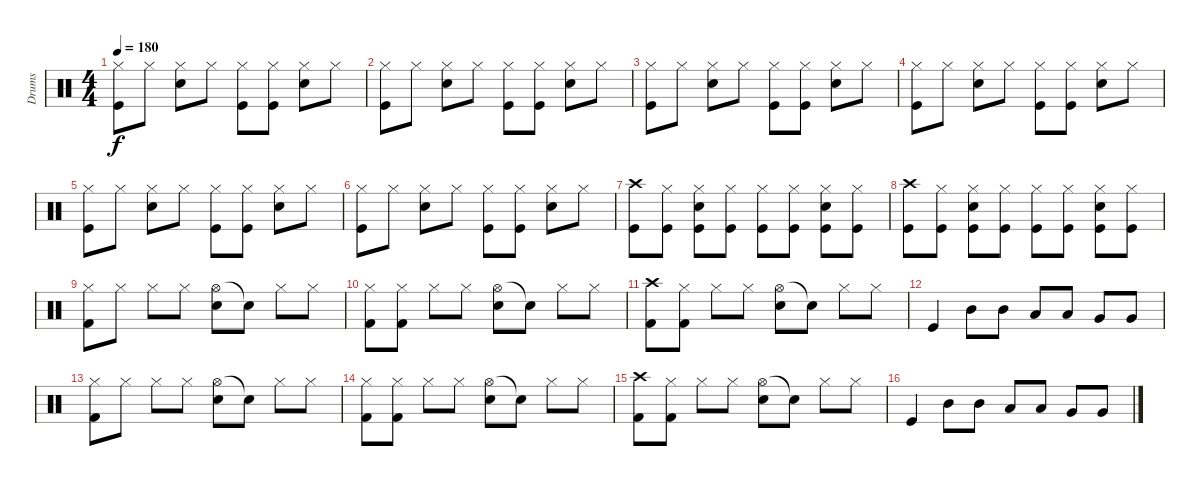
\track ("Drums" "Drums") {instrument percussion}
\staff {score}
\articulation defaults
\ts (4 4)
\tempo 180
\clef neutral
\ks c
("Hi-Hat (closed)" "Kick (hit)").8{dy f} "Hi-Hat (closed)".8 ("Hi-Hat (closed)" "Snare (hit) 2").8 "Hi-Hat (closed)".8 ("Hi-Hat (closed)" "Kick (hit)").8 ("Hi-Hat (closed)" "Kick (hit)").8 ("Hi-Hat (closed)" "Snare (hit) 2").8 "Hi-Hat (closed)".8 |
("Hi-Hat (closed)" "Kick (hit)").8 "Hi-Hat (closed)".8 ("Hi-Hat (closed)" "Snare (hit) 2").8 "Hi-Hat (closed)".8 ("Hi-Hat (closed)" "Kick (hit)").8 ("Hi-Hat (closed)" "Kick (hit)").8 ("Hi-Hat (closed)" "Snare (hit) 2").8 "Hi-Hat (closed)".8 |
("Hi-Hat (closed)" "Kick (hit)").8 "Hi-Hat (closed)".8 ("Hi-Hat (closed)" "Snare (hit) 2").8 "Hi-Hat (closed)".8 ("Hi-Hat (closed)" "Kick (hit)").8 ("Hi-Hat (closed)" "Kick (hit)").8 ("Hi-Hat (closed)" "Snare (hit) 2").8 "Hi-Hat (closed)".8 |
("Hi-Hat (closed)" "Kick (hit)").8 "Hi-Hat (closed)".8 ("Hi-Hat (closed)" "Snare (hit) 2").8 "Hi-Hat (closed)".8 ("Hi-Hat (closed)" "Kick (hit)").8 ("Hi-Hat (closed)" "Kick (hit)").8 ("Hi-Hat (closed)" "Snare (hit) 2").8 "Hi-Hat (closed)".8 |
("Hi-Hat (closed)" "Kick (hit)").8 "Hi-Hat (closed)".8 ("Hi-Hat (closed)" "Snare (hit) 2").8 "Hi-Hat (closed)".8 ("Hi-Hat (closed)" "Kick (hit)").8 ("Hi-Hat (closed)" "Kick (hit)").8 ("Hi-Hat (closed)" "Snare (hit) 2").8 "Hi-Hat (closed)".8 |
("Hi-Hat (closed)" "Kick (hit)").8 "Hi-Hat (closed)".8 ("Hi-Hat (closed)" "Snare (hit) 2").8 "Hi-Hat (closed)".8 ("Hi-Hat (closed)" "Kick (hit)").8 ("Hi-Hat (closed)" "Kick (hit)").8 ("Hi-Hat (closed)" "Snare (hit) 2").8 "Hi-Hat (closed)".8 |
("Crash high (hit)" "Kick (hit)").8 ("Hi-Hat (closed)" "Kick (hit)").8 ("Hi-Hat (closed)" "Snare (hit) 2" "Kick (hit)").8 ("Hi-Hat (closed)" "Kick (hit)").8 ("Hi-Hat (closed)" "Kick (hit)").8 ("Hi-Hat (closed)" "Kick (hit)").8 ("Hi-Hat (closed)" "Snare (hit) 2" "Kick (hit)").8 ("Hi-Hat (closed)" "Kick (hit)").8 |
("Crash high (hit)" "Kick (hit)").8 ("Hi-Hat (closed)" "Kick (hit)").8 ("Hi-Hat (closed)" "Snare (hit) 2" "Kick (hit)").8 ("Hi-Hat (closed)" "Kick (hit)").8 ("Hi-Hat (closed)" "Kick (hit)").8 ("Hi-Hat (closed)" "Kick (hit)").8 ("Hi-Hat (closed)" "Snare (hit) 2" "Kick (hit)").8 ("Hi-Hat (closed)" "Kick (hit)").8 |
("Hi-Hat (closed)" "Kick (hit) 2").8 "Hi-Hat (closed)".8 "Hi-Hat (closed)".8 "Hi-Hat (closed)".8 ("Hi-Hat (open)" "Snare (hit) 2").8 "Snare (hit)"{t}.8 "Hi-Hat (closed)".8 "Hi-Hat (closed)".8 |
("Hi-Hat (closed)" "Kick (hit) 2").8 ("Hi-Hat (closed)" "Kick (hit) 2").8 "Hi-Hat (closed)".8 "Hi-Hat (closed)".8 ("Hi-Hat (open)" "Snare (hit) 2").8 "Snare (hit)"{t}.8 "Hi-Hat (closed)".8 "Hi-Hat (closed)".8 |
("Crash high (hit)" "Kick (hit) 2").8 ("Hi-Hat (closed)" "Kick (hit) 2").8 "Hi-Hat (closed)".8 "Hi-Hat (closed)".8 ("Hi-Hat (open)" "Snare (hit) 2").8 "Snare (hit)"{t}.8 "Hi-Hat (closed)".8 "Hi-Hat (closed)".8 |
"Kick (hit)".4 "Mid Tom (hit)".8 "Mid Tom (hit)".8 "Low Tom (hit)".8 "Low Tom (hit)".8 "Very Low Tom (hit)".8 "Very Low Tom (hit)".8 |
("Hi-Hat (closed)" "Kick (hit) 2").8 "Hi-Hat (closed)".8 "Hi-Hat (closed)".8 "Hi-Hat (closed)".8 ("Hi-Hat (open)" "Snare (hit) 2").8 "Snare (hit)"{t}.8 "Hi-Hat (closed)".8 "Hi-Hat (closed)".8 |
("Hi-Hat (closed)" "Kick (hit) 2").8 ("Hi-Hat (closed)" "Kick (hit) 2").8 "Hi-Hat (closed)".8 "Hi-Hat (closed)".8 ("Hi-Hat (open)" "Snare (hit) 2").8 "Snare (hit)"{t}.8 "Hi-Hat (closed)".8 "Hi-Hat (closed)".8 |
("Crash high (hit)" "Kick (hit) 2").8 ("Hi-Hat (closed)" "Kick (hit) 2").8 "Hi-Hat (closed)".8 "Hi-Hat (closed)".8 ("Hi-Hat (open)" "Snare (hit) 2").8 "Snare (hit)"{t}.8 "Hi-Hat (closed)".8 "Hi-Hat (closed)".8 |
"Kick (hit)".4 "Mid Tom (hit)".8 "Mid Tom (hit)".8 "Low Tom (hit)".8 "Low Tom (hit)".8 "Very Low Tom (hit)".8 "Very Low Tom (hit)".8
